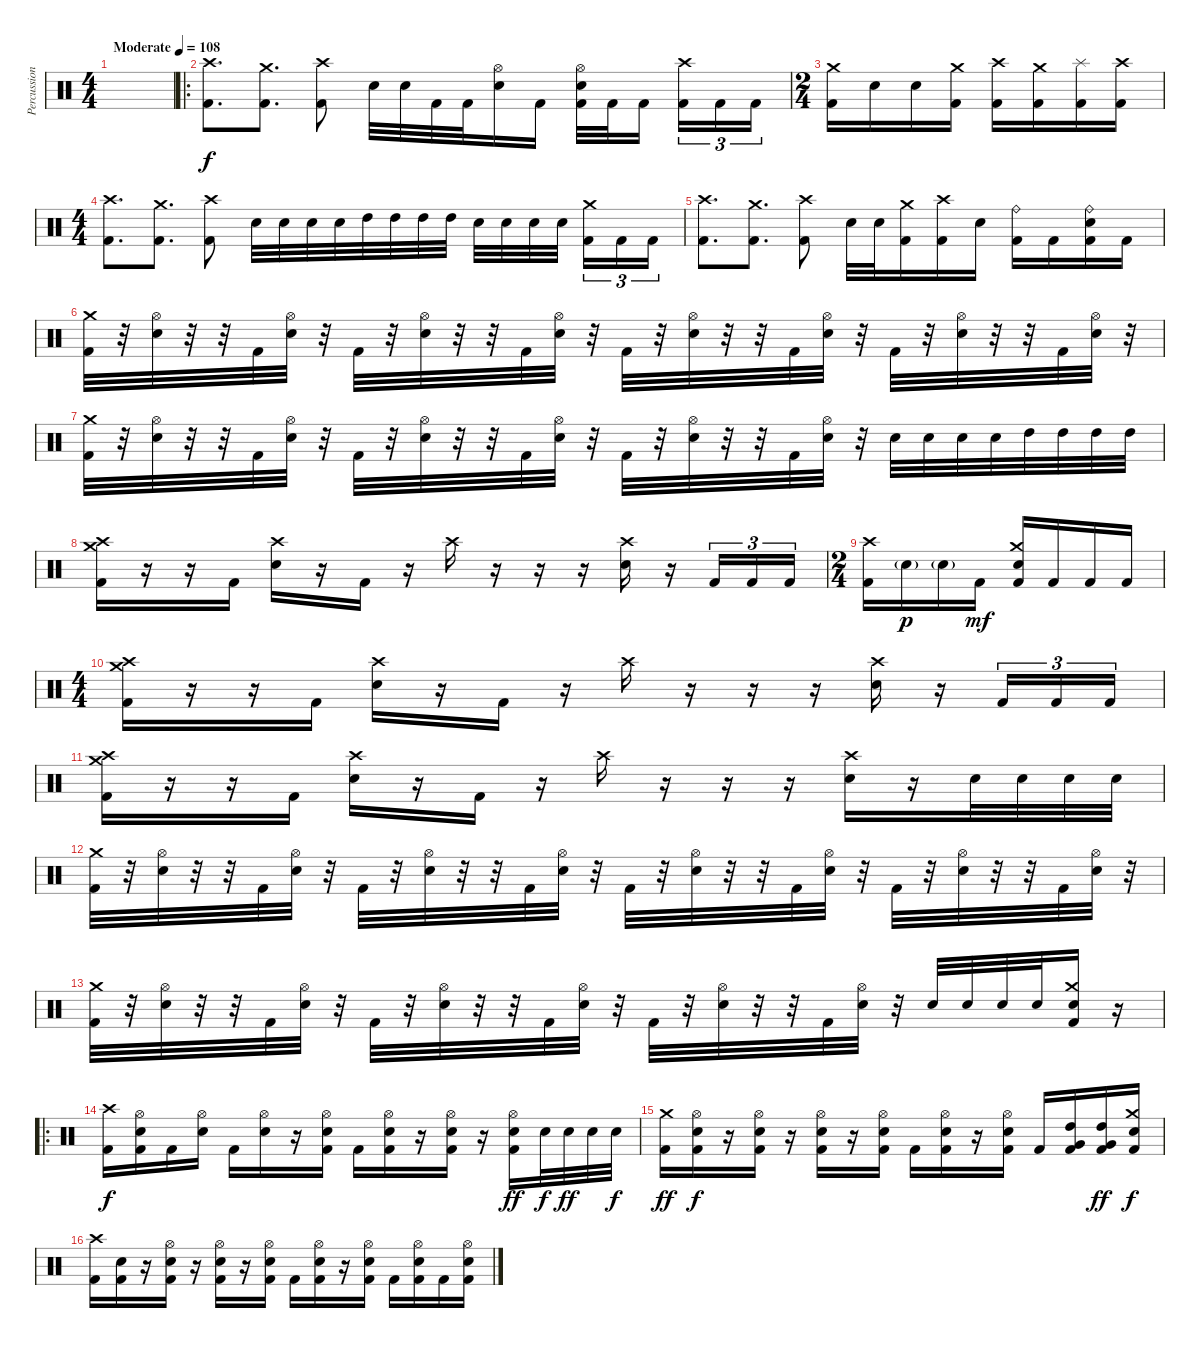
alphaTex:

\track ("Percussion" "Percussion") {instrument percussion}
\staff {score}
\articulation defaults
\ts (4 4)
\tempo (108 "Moderate")
\clef neutral
\ks c
|
\ro
("Crash high (hit)" "Kick (hit) 2").8{d} ("Crash medium (hit)" "Kick (hit) 2").8{d} ("Crash high (hit)" "Kick (hit) 2").8 "Electric Snare (hit)".32 "Electric Snare (hit)".32 "Kick (hit) 2".32 "Kick (hit) 2".32 ("Hi-Hat (open)" "Electric Snare (hit)").16 "Kick (hit) 2".16 ("Hi-Hat (open)" "Electric Snare (hit)" "Kick (hit) 2").32 "Kick (hit) 2".32 "Kick (hit) 2".16{beam splitsecondary} ("Crash high (hit)" "Kick (hit) 2").16{tu (3 2)} "Kick (hit) 2".16{tu (3 2)} "Kick (hit) 2".16{tu (3 2)} |
\ts (2 4)
("Crash medium (hit)" "Kick (hit) 2").16 "Electric Snare (hit)".16 "Electric Snare (hit)".16 ("Crash medium (hit)" "Kick (hit) 2").16 ("Crash high (hit)" "Kick (hit) 2").16 ("Crash medium (hit)" "Kick (hit) 2").16 ("Splash (hit)" "Kick (hit) 2").16 ("Crash high (hit)" "Kick (hit) 2").16 |
\ts (4 4)
("Crash high (hit)" "Kick (hit) 2").8{d} ("Crash medium (hit)" "Kick (hit) 2").8{d} ("Crash high (hit)" "Kick (hit) 2").8 "Electric Snare (hit)".32 "Electric Snare (hit)".32 "Electric Snare (hit)".32 "Electric Snare (hit)".32 "High Tom (hit)".32 "High Tom (hit)".32 "High Tom (hit)".32 "High Tom (hit)".32 "Electric Snare (hit)".32 "Electric Snare (hit)".32 "Electric Snare (hit)".32 "Electric Snare (hit)".32{beam splitsecondary} ("Crash medium (hit)" "Kick (hit) 2").16{tu (3 2)} "Kick (hit) 2".16{tu (3 2)} "Kick (hit) 2".16{tu (3 2)} |
("Crash high (hit)" "Kick (hit) 2").8{d} ("Crash medium (hit)" "Kick (hit) 2").8{d} ("Crash high (hit)" "Kick (hit) 2").8 "Electric Snare (hit)".32 "Electric Snare (hit)".32 ("Crash medium (hit)" "Kick (hit) 2").16 ("Crash high (hit)" "Kick (hit) 2").16 "Electric Snare (hit)".16 ("Ride (bell)" "Kick (hit) 2").16 "Kick (hit) 2".16 ("Ride (bell)" "Electric Snare (hit)" "Kick (hit) 2").16 "Kick (hit) 2".16 |
("Crash medium (hit)" "Kick (hit) 2").32 r.32 ("Hi-Hat (open)" "Electric Snare (hit)").32 r.32 r.32 "Kick (hit) 2".32 ("Hi-Hat (open)" "Electric Snare (hit)").32 r.32 "Kick (hit) 2".32 r.32 ("Hi-Hat (open)" "Electric Snare (hit)").32 r.32 r.32 "Kick (hit) 2".32 ("Hi-Hat (open)" "Electric Snare (hit)").32 r.32 "Kick (hit) 2".32 r.32 ("Hi-Hat (open)" "Electric Snare (hit)").32 r.32 r.32 "Kick (hit) 2".32 ("Hi-Hat (open)" "Electric Snare (hit)").32 r.32 "Kick (hit) 2".32 r.32 ("Hi-Hat (open)" "Electric Snare (hit)").32 r.32 r.32 "Kick (hit) 2".32 ("Hi-Hat (open)" "Electric Snare (hit)").32 r.32 |
("Crash medium (hit)" "Kick (hit) 2").32 r.32 ("Hi-Hat (open)" "Electric Snare (hit)").32 r.32 r.32 "Kick (hit) 2".32 ("Hi-Hat (open)" "Electric Snare (hit)").32 r.32 "Kick (hit) 2".32 r.32 ("Hi-Hat (open)" "Electric Snare (hit)").32 r.32 r.32 "Kick (hit) 2".32 ("Hi-Hat (open)" "Electric Snare (hit)").32 r.32 "Kick (hit) 2".32 r.32 ("Hi-Hat (open)" "Electric Snare (hit)").32 r.32 r.32 "Kick (hit) 2".32 ("Hi-Hat (open)" "Electric Snare (hit)").32 r.32 "Electric Snare (hit)".32 "Electric Snare (hit)".32 "Electric Snare (hit)".32 "Electric Snare (hit)".32 "High Tom (hit)".32 "High Tom (hit)".32 "High Tom (hit)".32 "High Tom (hit)".32 |
("Crash medium (hit)" "Crash high (hit)" "Kick (hit) 2").16 r.16 r.16 "Kick (hit) 2".16 ("Crash high (hit)" "Electric Snare (hit)").16 r.16 "Kick (hit) 2".16 r.16 "Crash high (hit)".16 r.16 r.16 r.16 ("Crash high (hit)" "Electric Snare (hit)").16 r.16 "Kick (hit) 2".16{tu (3 2)} "Kick (hit) 2".16{tu (3 2)} "Kick (hit) 2".16{tu (3 2)} |
\ts (2 4)
("Crash high (hit)" "Kick (hit) 2").16 "Electric Snare (hit)"{g}.16{dy p} "Electric Snare (hit)"{g}.16 "Kick (hit) 2".16{dy mf} ("Crash medium (hit)" "Electric Snare (hit)" "Kick (hit) 2").16 "Kick (hit) 2".16 "Kick (hit) 2".16 "Kick (hit) 2".16 |
\ts (4 4)
("Crash medium (hit)" "Crash high (hit)" "Kick (hit) 2").16 r.16 r.16 "Kick (hit) 2".16 ("Crash high (hit)" "Electric Snare (hit)").16 r.16 "Kick (hit) 2".16 r.16 "Crash high (hit)".16 r.16 r.16 r.16 ("Crash high (hit)" "Electric Snare (hit)").16 r.16 "Kick (hit) 2".16{tu (3 2)} "Kick (hit) 2".16{tu (3 2)} "Kick (hit) 2".16{tu (3 2)} |
("Crash medium (hit)" "Crash high (hit)" "Kick (hit) 2").16 r.16 r.16 "Kick (hit) 2".16 ("Crash high (hit)" "Electric Snare (hit)").16 r.16 "Kick (hit) 2".16 r.16 "Crash high (hit)".16 r.16 r.16 r.16 ("Crash high (hit)" "Electric Snare (hit)").16 r.16 "Electric Snare (hit)".32 "Electric Snare (hit)".32 "Electric Snare (hit)".32 "Electric Snare (hit)".32 |
("Crash medium (hit)" "Kick (hit) 2").32 r.32 ("Hi-Hat (open)" "Electric Snare (hit)").32 r.32 r.32 "Kick (hit) 2".32 ("Hi-Hat (open)" "Electric Snare (hit)").32 r.32 "Kick (hit) 2".32 r.32 ("Hi-Hat (open)" "Electric Snare (hit)").32 r.32 r.32 "Kick (hit) 2".32 ("Hi-Hat (open)" "Electric Snare (hit)").32 r.32 "Kick (hit) 2".32 r.32 ("Hi-Hat (open)" "Electric Snare (hit)").32 r.32 r.32 "Kick (hit) 2".32 ("Hi-Hat (open)" "Electric Snare (hit)").32 r.32 "Kick (hit) 2".32 r.32 ("Hi-Hat (open)" "Electric Snare (hit)").32 r.32 r.32 "Kick (hit) 2".32 ("Hi-Hat (open)" "Electric Snare (hit)").32 r.32 |
("Crash medium (hit)" "Kick (hit) 2").32 r.32 ("Hi-Hat (open)" "Electric Snare (hit)").32 r.32 r.32 "Kick (hit) 2".32 ("Hi-Hat (open)" "Electric Snare (hit)").32 r.32 "Kick (hit) 2".32 r.32 ("Hi-Hat (open)" "Electric Snare (hit)").32 r.32 r.32 "Kick (hit) 2".32 ("Hi-Hat (open)" "Electric Snare (hit)").32 r.32 "Kick (hit) 2".32 r.32 ("Hi-Hat (open)" "Electric Snare (hit)").32 r.32 r.32 "Kick (hit) 2".32 ("Hi-Hat (open)" "Electric Snare (hit)").32 r.32 "Electric Snare (hit)".32 "Electric Snare (hit)".32 "Electric Snare (hit)".32 "Electric Snare (hit)".32 ("Crash medium (hit)" "Electric Snare (hit)" "Kick (hit) 2").16 r.16 |
\ro
("Crash high (hit)" "Kick (hit) 2").16{dy f} ("Hi-Hat (open)" "Electric Snare (hit)" "Kick (hit) 2").16 "Kick (hit) 2".16 ("Hi-Hat (open)" "Electric Snare (hit)").16 "Kick (hit) 2".16 ("Hi-Hat (open)" "Electric Snare (hit)").16 r.16 ("Hi-Hat (open)" "Electric Snare (hit)" "Kick (hit) 2").16 "Kick (hit) 2".16 ("Hi-Hat (open)" "Electric Snare (hit)" "Kick (hit) 2").16 r.16 ("Hi-Hat (open)" "Electric Snare (hit)" "Kick (hit) 2").16 r.16 ("Hi-Hat (open)" "Electric Snare (hit)" "Kick (hit) 2").16{dy ff} "Electric Snare (hit)".32{dy f} "Electric Snare (hit)".32{dy ff} "Electric Snare (hit)".32 "Electric Snare (hit)".32{dy f} |
("Crash medium (hit)" "Kick (hit) 2").16{dy ff} ("Hi-Hat (open)" "Electric Snare (hit)" "Kick (hit) 2").16{dy f} r.16 ("Hi-Hat (open)" "Electric Snare (hit)" "Kick (hit) 2").16 r.16 ("Hi-Hat (open)" "Electric Snare (hit)" "Kick (hit) 2").16 r.16 ("Hi-Hat (open)" "Electric Snare (hit)" "Kick (hit) 2").16 "Kick (hit) 2".16 ("Hi-Hat (open)" "Electric Snare (hit)" "Kick (hit) 2").16 r.16 ("Hi-Hat (open)" "Electric Snare (hit)" "Kick (hit) 2").16 "Kick (hit) 2".16 ("High Tom (hit)" "Very Low Tom (hit)" "Kick (hit) 2").16 ("High Tom (hit)" "Very Low Tom (hit)" "Kick (hit) 2").16{dy ff} ("Crash medium (hit)" "Electric Snare (hit)" "Kick (hit) 2").16{dy f} |
("Crash high (hit)" "Kick (hit) 2").16 ("Electric Snare (hit)" "Kick (hit) 2").16 r.16 ("Hi-Hat (open)" "Electric Snare (hit)" "Kick (hit) 2").16 r.16 ("Hi-Hat (open)" "Electric Snare (hit)" "Kick (hit) 2").16 r.16 ("Hi-Hat (open)" "Electric Snare (hit)" "Kick (hit) 2").16 "Kick (hit) 2".16 ("Hi-Hat (open)" "Electric Snare (hit)" "Kick (hit) 2").16 r.16 ("Hi-Hat (open)" "Electric Snare (hit)" "Kick (hit) 2").16 "Kick (hit) 2".16 ("Hi-Hat (open)" "Electric Snare (hit)" "Kick (hit) 2").16 "Kick (hit) 2".16 ("Hi-Hat (open)" "Electric Snare (hit)" "Kick (hit) 2").16
